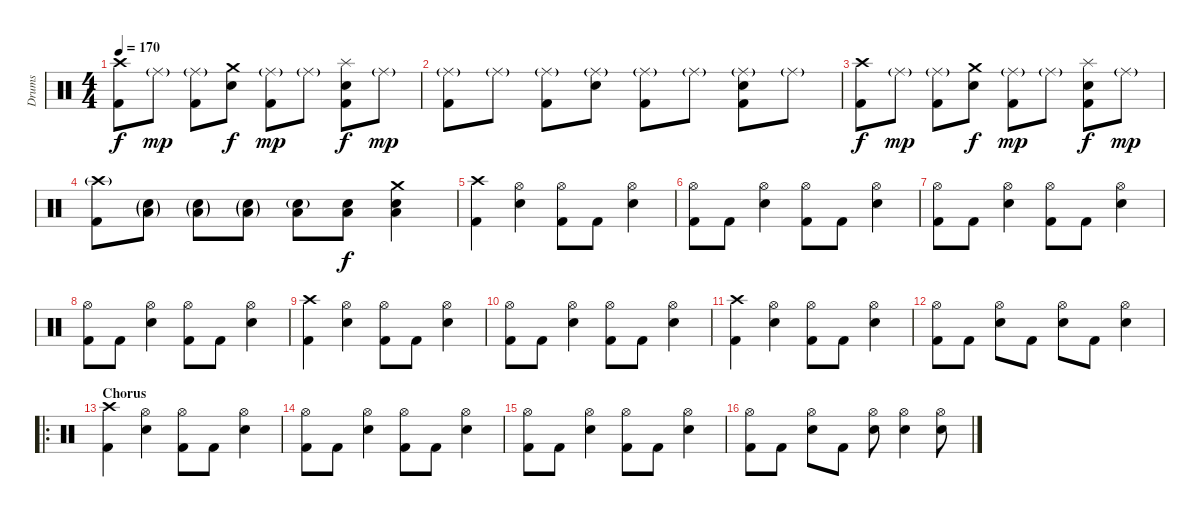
\track ("Drums" "Drums") {instrument percussion}
\staff {score}
\articulation defaults
\ts (4 4)
\tempo 170
\clef neutral
\ks c
("Crash high (hit)" "Kick (hit) 2").8{dy f} "Ride (middle)"{g}.8{dy mp} ("Ride (middle)"{g} "Kick (hit) 2").8 ("Crash medium (hit)" "Electric Snare (hit)").8{dy f} ("Ride (middle)"{g} "Kick (hit) 2").8{dy mp} "Ride (middle)"{g}.8 ("Splash (hit)" "Kick (hit) 2" "Electric Snare (hit)").8{dy f} "Ride (middle)"{g}.8{dy mp} |
("Ride (middle)"{g} "Kick (hit) 2").8 "Ride (middle)"{g}.8 ("Ride (middle)"{g} "Kick (hit) 2").8 ("Ride (middle)"{g} "Electric Snare (hit)").8 ("Ride (middle)"{g} "Kick (hit) 2").8 "Ride (middle)"{g}.8 ("Ride (middle)"{g} "Kick (hit) 2" "Electric Snare (hit)").8 "Ride (middle)"{g}.8 |
("Crash high (hit)" "Kick (hit) 2").8{dy f} "Ride (middle)"{g}.8{dy mp} ("Ride (middle)"{g} "Kick (hit) 2").8 ("Crash medium (hit)" "Electric Snare (hit)").8{dy f} ("Ride (middle)"{g} "Kick (hit) 2").8{dy mp} "Ride (middle)"{g}.8 ("Splash (hit)" "Kick (hit) 2" "Electric Snare (hit)").8{dy f} "Ride (middle)"{g}.8{dy mp} |
("Crash high (hit)"{g} "Kick (hit) 2").8 ("Electric Snare (hit)"{g} "Low Floor Tom (hit)"{g}).8 ("Electric Snare (hit)"{g} "Low Floor Tom (hit)"{g}).8 ("Electric Snare (hit)"{g} "Low Floor Tom (hit)"{g}).8 ("Electric Snare (hit)"{g} "Low Floor Tom (hit)").8 ("Electric Snare (hit)" "Low Floor Tom (hit)").8{dy f} ("Electric Snare (hit)" "Low Floor Tom (hit)" "Crash medium (hit)").4 |
("Crash high (hit)" "Kick (hit) 2").4 ("Hi-Hat (open)" "Electric Snare (hit)").4 ("Hi-Hat (open)" "Kick (hit) 2").8 "Kick (hit) 2".8 ("Hi-Hat (open)" "Electric Snare (hit)").4 |
("Hi-Hat (open)" "Kick (hit) 2").8 "Kick (hit) 2".8 ("Hi-Hat (open)" "Electric Snare (hit)").4 ("Hi-Hat (open)" "Kick (hit) 2").8 "Kick (hit) 2".8 ("Hi-Hat (open)" "Electric Snare (hit)").4 |
("Hi-Hat (open)" "Kick (hit) 2").8 "Kick (hit) 2".8 ("Hi-Hat (open)" "Electric Snare (hit)").4 ("Hi-Hat (open)" "Kick (hit) 2").8 "Kick (hit) 2".8 ("Hi-Hat (open)" "Electric Snare (hit)").4 |
("Hi-Hat (open)" "Kick (hit) 2").8 "Kick (hit) 2".8 ("Hi-Hat (open)" "Electric Snare (hit)").4 ("Hi-Hat (open)" "Kick (hit) 2").8 "Kick (hit) 2".8 ("Hi-Hat (open)" "Electric Snare (hit)").4 |
("Crash high (hit)" "Kick (hit) 2").4 ("Hi-Hat (open)" "Electric Snare (hit)").4 ("Hi-Hat (open)" "Kick (hit) 2").8 "Kick (hit) 2".8 ("Hi-Hat (open)" "Electric Snare (hit)").4 |
("Hi-Hat (open)" "Kick (hit) 2").8 "Kick (hit) 2".8 ("Hi-Hat (open)" "Electric Snare (hit)").4 ("Hi-Hat (open)" "Kick (hit) 2").8 "Kick (hit) 2".8 ("Hi-Hat (open)" "Electric Snare (hit)").4 |
("Crash high (hit)" "Kick (hit) 2").4 ("Hi-Hat (open)" "Electric Snare (hit)").4 ("Hi-Hat (open)" "Kick (hit) 2").8 "Kick (hit) 2".8 ("Hi-Hat (open)" "Electric Snare (hit)").4 |
("Hi-Hat (open)" "Kick (hit) 2").8 "Kick (hit) 2".8 ("Hi-Hat (open)" "Electric Snare (hit)").8 "Kick (hit) 2".8 ("Hi-Hat (open)" "Electric Snare (hit)").8 "Kick (hit) 2".8 ("Hi-Hat (open)" "Electric Snare (hit)").4 |
\ro
\section ("" "Chorus")
("Crash high (hit)" "Kick (hit) 2").4 ("Hi-Hat (open)" "Electric Snare (hit)").4 ("Hi-Hat (open)" "Kick (hit) 2").8 "Kick (hit) 2".8 ("Hi-Hat (open)" "Electric Snare (hit)").4 |
("Hi-Hat (open)" "Kick (hit) 2").8 "Kick (hit) 2".8 ("Hi-Hat (open)" "Electric Snare (hit)").4 ("Hi-Hat (open)" "Kick (hit) 2").8 "Kick (hit) 2".8 ("Hi-Hat (open)" "Electric Snare (hit)").4 |
("Hi-Hat (open)" "Kick (hit) 2").8 "Kick (hit) 2".8 ("Hi-Hat (open)" "Electric Snare (hit)").4 ("Hi-Hat (open)" "Kick (hit) 2").8 "Kick (hit) 2".8 ("Hi-Hat (open)" "Electric Snare (hit)").4 |
("Hi-Hat (open)" "Kick (hit) 2").8 "Kick (hit) 2".8 ("Hi-Hat (open)" "Electric Snare (hit)").8 "Kick (hit) 2".8 ("Hi-Hat (open)" "Electric Snare (hit)").8 ("Hi-Hat (open)" "Electric Snare (hit)").4 ("Hi-Hat (open)" "Electric Snare (hit)").8
